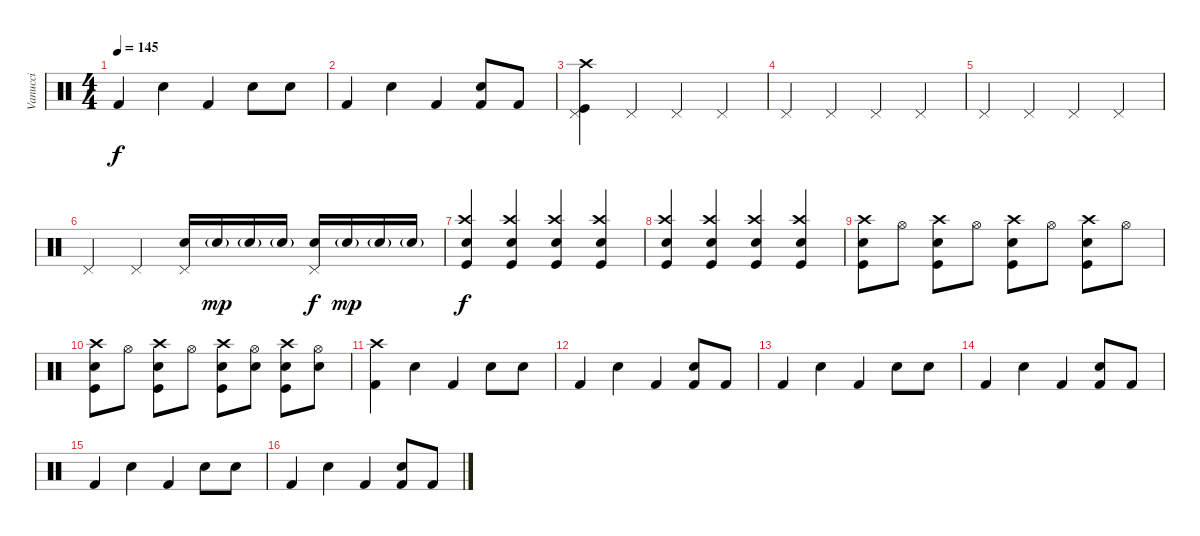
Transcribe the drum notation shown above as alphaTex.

\track ("Vanucci" "Vanucci") {instrument percussion}
\staff {score}
\articulation defaults
\ts (4 4)
\tempo 145
\clef neutral
\ks c "Kick (hit) 2".4{dy f} "Electric Snare (hit)".4 "Kick (hit) 2".4 "Electric Snare (hit)".8 "Electric Snare (hit)".8
|
"Kick (hit) 2".4 "Electric Snare (hit)".4 "Kick (hit) 2".4 ("Electric Snare (hit)" "Kick (hit) 2").8 "Kick (hit) 2".8 |
("Crash high (hit)" "Kick (hit)" "Pedal Hi-Hat (hit)").4 "Pedal Hi-Hat (hit)".4 "Pedal Hi-Hat (hit)".4 "Pedal Hi-Hat (hit)".4 |
"Pedal Hi-Hat (hit)".4 "Pedal Hi-Hat (hit)".4 "Pedal Hi-Hat (hit)".4 "Pedal Hi-Hat (hit)".4 |
"Pedal Hi-Hat (hit)".4 "Pedal Hi-Hat (hit)".4 "Pedal Hi-Hat (hit)".4 "Pedal Hi-Hat (hit)".4 |
"Pedal Hi-Hat (hit)".4 "Pedal Hi-Hat (hit)".4 ("Pedal Hi-Hat (hit)" "Electric Snare (hit)").16 "Electric Snare (hit)"{g}.16{dy mp} "Electric Snare (hit)"{g}.16 "Electric Snare (hit)"{g}.16 ("Pedal Hi-Hat (hit)" "Electric Snare (hit)").16{dy f} "Electric Snare (hit)"{g}.16{dy mp} "Electric Snare (hit)"{g}.16 "Electric Snare (hit)"{g}.16 |
("Crash high (hit)" "Electric Snare (hit)" "Kick (hit)").4{dy f} ("Crash high (hit)" "Electric Snare (hit)" "Kick (hit)").4 ("Crash high (hit)" "Electric Snare (hit)" "Kick (hit)").4 ("Crash high (hit)" "Electric Snare (hit)" "Kick (hit)").4 |
("Crash high (hit)" "Electric Snare (hit)" "Kick (hit)").4 ("Crash high (hit)" "Electric Snare (hit)" "Kick (hit)").4 ("Crash high (hit)" "Electric Snare (hit)" "Kick (hit)").4 ("Crash high (hit)" "Electric Snare (hit)" "Kick (hit)").4 |
("Crash high (hit)" "Electric Snare (hit)" "Kick (hit)").8 "Hi-Hat (open)".8 ("Crash high (hit)" "Electric Snare (hit)" "Kick (hit)").8 "Hi-Hat (open)".8 ("Crash high (hit)" "Electric Snare (hit)" "Kick (hit)").8 "Hi-Hat (open)".8 ("Crash high (hit)" "Electric Snare (hit)" "Kick (hit)").8 "Hi-Hat (open)".8 |
("Crash high (hit)" "Electric Snare (hit)" "Kick (hit)").8 "Hi-Hat (open)".8 ("Crash high (hit)" "Electric Snare (hit)" "Kick (hit)").8 "Hi-Hat (open)".8 ("Crash high (hit)" "Electric Snare (hit)" "Kick (hit)").8 ("Hi-Hat (open)" "Electric Snare (hit)").8 ("Crash high (hit)" "Electric Snare (hit)" "Kick (hit)").8 ("Hi-Hat (open)" "Electric Snare (hit)").8 |
("Crash high (hit)" "Kick (hit) 2").4 "Electric Snare (hit)".4 "Kick (hit) 2".4 "Electric Snare (hit)".8 "Electric Snare (hit)".8 |
"Kick (hit) 2".4 "Electric Snare (hit)".4 "Kick (hit) 2".4 ("Electric Snare (hit)" "Kick (hit) 2").8 "Kick (hit) 2".8 |
"Kick (hit) 2".4 "Electric Snare (hit)".4 "Kick (hit) 2".4 "Electric Snare (hit)".8 "Electric Snare (hit)".8 |
"Kick (hit) 2".4 "Electric Snare (hit)".4 "Kick (hit) 2".4 ("Electric Snare (hit)" "Kick (hit) 2").8 "Kick (hit) 2".8 |
"Kick (hit) 2".4 "Electric Snare (hit)".4 "Kick (hit) 2".4 "Electric Snare (hit)".8 "Electric Snare (hit)".8 |
"Kick (hit) 2".4 "Electric Snare (hit)".4 "Kick (hit) 2".4 ("Electric Snare (hit)" "Kick (hit) 2").8 "Kick (hit) 2".8
